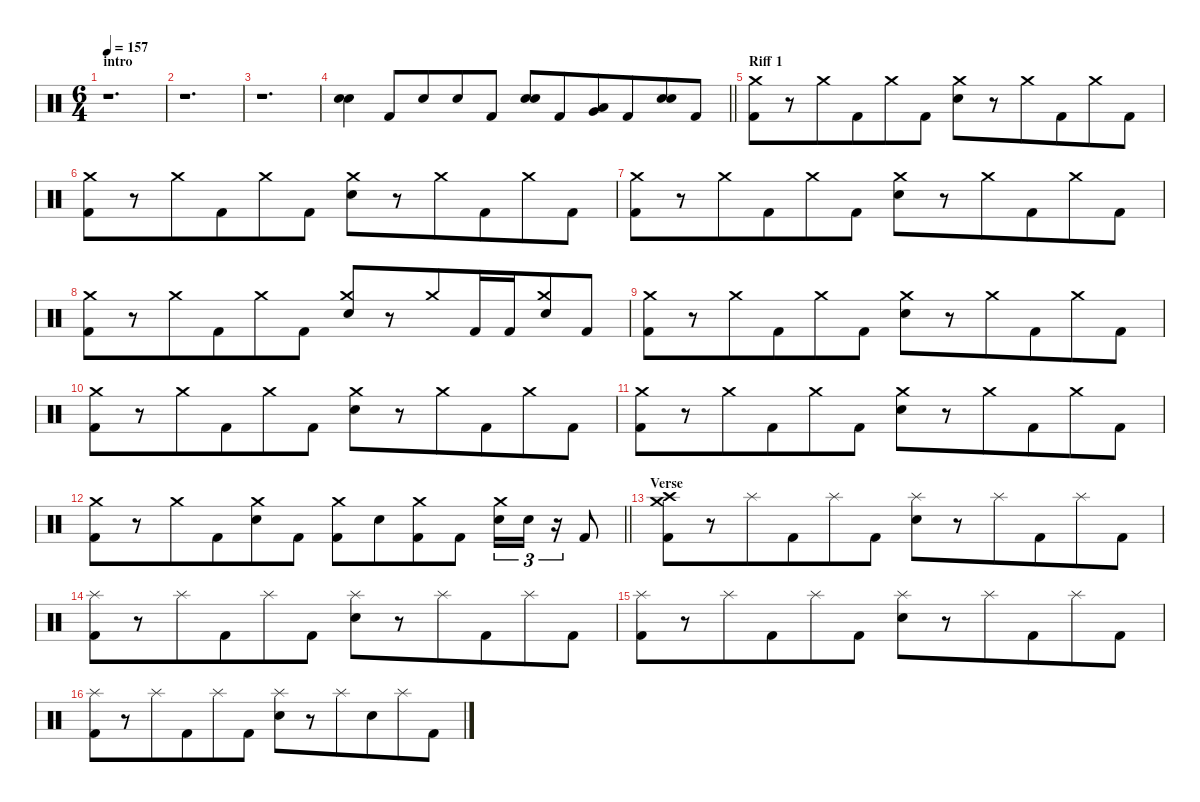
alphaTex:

\defaultSystemsLayout 4
\hideDynamics
\bracketExtendMode nobrackets
\singleTrackTrackNamePolicy hidden
\multiTrackTrackNamePolicy hidden
\firstSystemTrackNameMode fullname
\firstSystemTrackNameOrientation horizontal
\otherSystemsTrackNameOrientation horizontal
\track ("Drums" "drm.") {defaultSystemsLayout 4 instrument percussion}
\staff {score}
\articulation defaults
\ts (6 4)
\beaming (8 6 6)
\section ("" "intro")
\tempo 157
\clef neutral
\ks c
r.1{d dy f beam Down} |
r.1{d beam Down} |
r.1{d beam Down} |
\barLineRight lightlight
("Snare (hit) 2" "Snare (hit) 2").4{beam Down} "Kick (hit) 2".8{beam Up} "Snare (hit) 2".8{beam Up} "Snare (hit) 2".8{beam Up} "Kick (hit) 2".8{beam Up} ("Snare (hit) 2" "Snare (hit) 2").8{beam Up} "Kick (hit) 2".8{beam Up} ("Low Tom (hit)" "Very Low Tom (hit)").8{beam Up} "Kick (hit) 2".8{beam Up} ("Snare (hit) 2" "Snare (hit) 2").8{beam Up} "Kick (hit) 2".8{beam Up} |
\section ("" "Riff 1")
("Crash medium (hit)" "Kick (hit) 2").8{beam Down} r.8{beam Down} "Crash medium (hit)".8{beam Down} "Kick (hit) 2".8{beam Down} "Crash medium (hit)".8{beam Down} "Kick (hit) 2".8{beam Down} ("Crash medium (hit)" "Snare (hit) 2").8{beam Down} r.8{beam Down} "Crash medium (hit)".8{beam Down} "Kick (hit) 2".8{beam Down} "Crash medium (hit)".8{beam Down} "Kick (hit) 2".8{beam Down} |
("Crash medium (hit)" "Kick (hit) 2").8{beam Down} r.8{beam Down} "Crash medium (hit)".8{beam Down} "Kick (hit) 2".8{beam Down} "Crash medium (hit)".8{beam Down} "Kick (hit) 2".8{beam Down} ("Crash medium (hit)" "Snare (hit) 2").8{beam Down} r.8{beam Down} "Crash medium (hit)".8{beam Down} "Kick (hit) 2".8{beam Down} "Crash medium (hit)".8{beam Down} "Kick (hit) 2".8{beam Down} |
("Crash medium (hit)" "Kick (hit) 2").8{beam Down} r.8{beam Down} "Crash medium (hit)".8{beam Down} "Kick (hit) 2".8{beam Down} "Crash medium (hit)".8{beam Down} "Kick (hit) 2".8{beam Down} ("Crash medium (hit)" "Snare (hit) 2").8{beam Down} r.8{beam Down} "Crash medium (hit)".8{beam Down} "Kick (hit) 2".8{beam Down} "Crash medium (hit)".8{beam Down} "Kick (hit) 2".8{beam Down} |
("Crash medium (hit)" "Kick (hit) 2").8{beam Down} r.8{beam Down} "Crash medium (hit)".8{beam Down} "Kick (hit) 2".8{beam Down} "Crash medium (hit)".8{beam Down} "Kick (hit) 2".8{beam Down} ("Crash medium (hit)" "Snare (hit) 2").8{beam Up} r.8{beam Up} "Crash medium (hit)".8{beam Up} "Kick (hit) 2".16{beam Up} "Kick (hit) 2".16{beam Up} ("Crash medium (hit)" "Snare (hit) 2").8{beam Up} "Kick (hit) 2".8{beam Up} |
("Crash medium (hit)" "Kick (hit) 2").8{beam Down} r.8{beam Down} "Crash medium (hit)".8{beam Down} "Kick (hit) 2".8{beam Down} "Crash medium (hit)".8{beam Down} "Kick (hit) 2".8{beam Down} ("Crash medium (hit)" "Snare (hit) 2").8{beam Down} r.8{beam Down} "Crash medium (hit)".8{beam Down} "Kick (hit) 2".8{beam Down} "Crash medium (hit)".8{beam Down} "Kick (hit) 2".8{beam Down} |
("Crash medium (hit)" "Kick (hit) 2").8{beam Down} r.8{beam Down} "Crash medium (hit)".8{beam Down} "Kick (hit) 2".8{beam Down} "Crash medium (hit)".8{beam Down} "Kick (hit) 2".8{beam Down} ("Crash medium (hit)" "Snare (hit) 2").8{beam Down} r.8{beam Down} "Crash medium (hit)".8{beam Down} "Kick (hit) 2".8{beam Down} "Crash medium (hit)".8{beam Down} "Kick (hit) 2".8{beam Down} |
("Crash medium (hit)" "Kick (hit) 2").8{beam Down} r.8{beam Down} "Crash medium (hit)".8{beam Down} "Kick (hit) 2".8{beam Down} "Crash medium (hit)".8{beam Down} "Kick (hit) 2".8{beam Down} ("Crash medium (hit)" "Snare (hit) 2").8{beam Down} r.8{beam Down} "Crash medium (hit)".8{beam Down} "Kick (hit) 2".8{beam Down} "Crash medium (hit)".8{beam Down} "Kick (hit) 2".8{beam Down} |
\barLineRight lightlight
("Crash medium (hit)" "Kick (hit) 2").8{beam Down} r.8{beam Down} "Crash medium (hit)".8{beam Down} "Kick (hit) 2".8{beam Down} ("Crash medium (hit)" "Snare (hit) 2").8{beam Down} "Kick (hit) 2".8{beam Down} ("Crash medium (hit)" "Kick (hit) 2").8{beam Down} "Snare (hit) 2".8{beam Down} ("Crash medium (hit)" "Kick (hit) 2").8{beam Down} "Kick (hit) 2".8{beam Down} ("Crash medium (hit)" "Snare (hit) 2").16{tu (3 2) beam Down} "Snare (hit) 2".16{tu (3 2) beam Down} r.16{tu (3 2) beam Down} "Kick (hit) 2".8{beam Up} |
\section ("" "Verse")
("Crash high (hit)" "Crash medium (hit)" "Kick (hit) 2").8{beam Down} r.8{beam Down} "Splash (hit)".8{beam Down} "Kick (hit) 2".8{beam Down} "Splash (hit)".8{beam Down} "Kick (hit) 2".8{beam Down} ("Splash (hit)" "Snare (hit) 2").8{beam Down} r.8{beam Down} "Splash (hit)".8{beam Down} "Kick (hit) 2".8{beam Down} "Splash (hit)".8{beam Down} "Kick (hit) 2".8{beam Down} |
("Splash (hit)" "Kick (hit) 2").8{beam Down} r.8{beam Down} "Splash (hit)".8{beam Down} "Kick (hit) 2".8{beam Down} "Splash (hit)".8{beam Down} "Kick (hit) 2".8{beam Down} ("Splash (hit)" "Snare (hit) 2").8{beam Down} r.8{beam Down} "Splash (hit)".8{beam Down} "Kick (hit) 2".8{beam Down} "Splash (hit)".8{beam Down} "Kick (hit) 2".8{beam Down} |
("Splash (hit)" "Kick (hit) 2").8{beam Down} r.8{beam Down} "Splash (hit)".8{beam Down} "Kick (hit) 2".8{beam Down} "Splash (hit)".8{beam Down} "Kick (hit) 2".8{beam Down} ("Splash (hit)" "Snare (hit) 2").8{beam Down} r.8{beam Down} "Splash (hit)".8{beam Down} "Kick (hit) 2".8{beam Down} "Splash (hit)".8{beam Down} "Kick (hit) 2".8{beam Down} |
("Splash (hit)" "Kick (hit) 2").8{beam Down} r.8{beam Down} "Splash (hit)".8{beam Down} "Kick (hit) 2".8{beam Down} "Splash (hit)".8{beam Down} "Kick (hit) 2".8{beam Down} ("Splash (hit)" "Snare (hit) 2").8{beam Down} r.8{beam Down} "Splash (hit)".8{beam Down} "Snare (hit) 2".8{beam Down} "Splash (hit)".8{beam Down} "Kick (hit) 2".8{beam Down}
